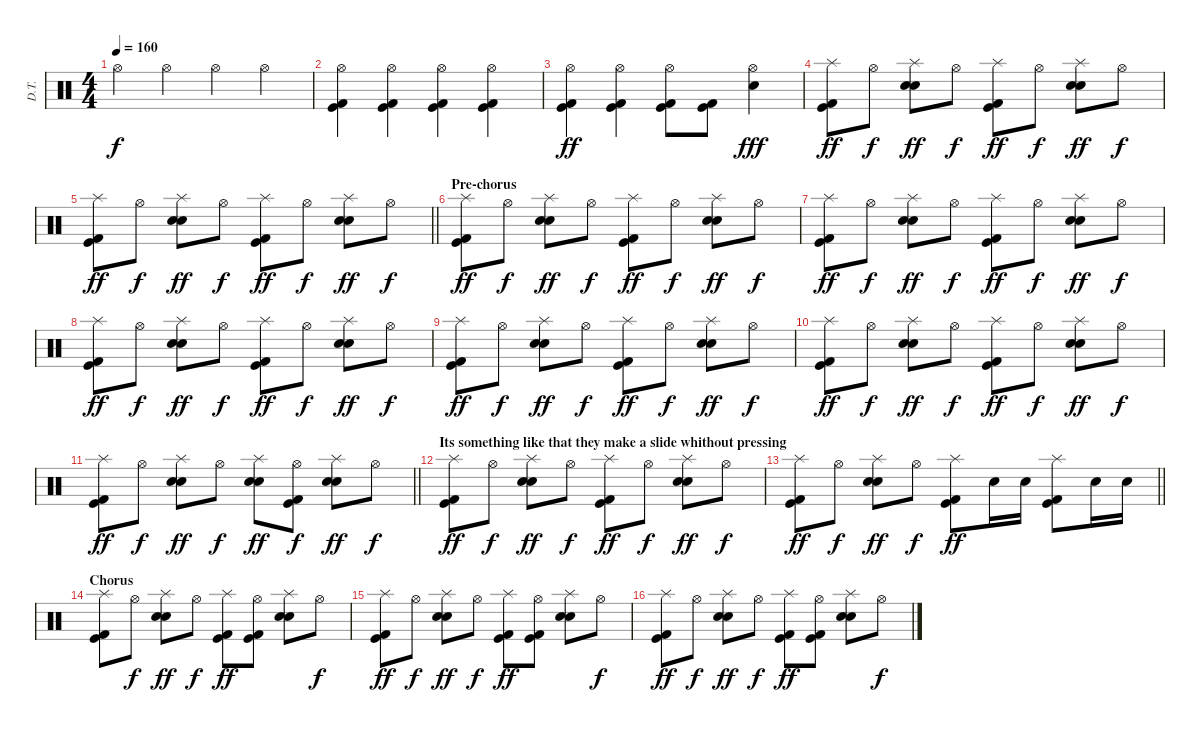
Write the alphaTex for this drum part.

\track ("D.T." "D.T.") {instrument percussion}
\staff {score}
\articulation defaults
\ts (4 4)
\tempo 160
\clef neutral
\ks c "Hi-Hat (open)".4{dy f} "Hi-Hat (open)".4 "Hi-Hat (open)".4 "Hi-Hat (open)".4
|
("Hi-Hat (open)" "Kick (hit)" "Kick (hit) 2").4 ("Hi-Hat (open)" "Kick (hit)" "Kick (hit) 2").4 ("Hi-Hat (open)" "Kick (hit)" "Kick (hit) 2").4 ("Hi-Hat (open)" "Kick (hit)" "Kick (hit) 2").4 |
("Hi-Hat (open)" "Kick (hit)" "Kick (hit) 2").4{dy ff} ("Hi-Hat (open)" "Kick (hit)" "Kick (hit) 2").4 ("Hi-Hat (open)" "Kick (hit)" "Kick (hit) 2").8 ("Kick (hit)" "Kick (hit) 2").8 ("Hi-Hat (open)" "Electric Snare (hit)").4{dy fff} |
("Splash (hit)" "Kick (hit)" "Kick (hit) 2").8{dy ff} "Hi-Hat (open)".8{dy f} ("Splash (hit)" "Snare (hit) 2" "Electric Snare (hit)").8{dy ff} "Hi-Hat (open)".8{dy f} ("Splash (hit)" "Kick (hit)" "Kick (hit) 2").8{dy ff} "Hi-Hat (open)".8{dy f} ("Splash (hit)" "Snare (hit) 2" "Electric Snare (hit)").8{dy ff} "Hi-Hat (open)".8{dy f} |
\barLineRight lightlight
("Splash (hit)" "Kick (hit)" "Kick (hit) 2").8{dy ff} "Hi-Hat (open)".8{dy f} ("Splash (hit)" "Snare (hit) 2" "Electric Snare (hit)").8{dy ff} "Hi-Hat (open)".8{dy f} ("Splash (hit)" "Kick (hit)" "Kick (hit) 2").8{dy ff} "Hi-Hat (open)".8{dy f} ("Splash (hit)" "Snare (hit) 2" "Electric Snare (hit)").8{dy ff} "Hi-Hat (open)".8{dy f} |
\section ("" "Pre-chorus")
("Splash (hit)" "Kick (hit)" "Kick (hit) 2").8{dy ff} "Hi-Hat (open)".8{dy f} ("Splash (hit)" "Snare (hit) 2" "Electric Snare (hit)").8{dy ff} "Hi-Hat (open)".8{dy f} ("Splash (hit)" "Kick (hit)" "Kick (hit) 2").8{dy ff} "Hi-Hat (open)".8{dy f} ("Splash (hit)" "Snare (hit) 2" "Electric Snare (hit)").8{dy ff} "Hi-Hat (open)".8{dy f} |
("Splash (hit)" "Kick (hit)" "Kick (hit) 2").8{dy ff} "Hi-Hat (open)".8{dy f} ("Splash (hit)" "Snare (hit) 2" "Electric Snare (hit)").8{dy ff} "Hi-Hat (open)".8{dy f} ("Splash (hit)" "Kick (hit)" "Kick (hit) 2").8{dy ff} "Hi-Hat (open)".8{dy f} ("Splash (hit)" "Snare (hit) 2" "Electric Snare (hit)").8{dy ff} "Hi-Hat (open)".8{dy f} |
("Splash (hit)" "Kick (hit)" "Kick (hit) 2").8{dy ff} "Hi-Hat (open)".8{dy f} ("Splash (hit)" "Snare (hit) 2" "Electric Snare (hit)").8{dy ff} "Hi-Hat (open)".8{dy f} ("Splash (hit)" "Kick (hit)" "Kick (hit) 2").8{dy ff} "Hi-Hat (open)".8{dy f} ("Splash (hit)" "Snare (hit) 2" "Electric Snare (hit)").8{dy ff} "Hi-Hat (open)".8{dy f} |
("Splash (hit)" "Kick (hit)" "Kick (hit) 2").8{dy ff} "Hi-Hat (open)".8{dy f} ("Splash (hit)" "Snare (hit) 2" "Electric Snare (hit)").8{dy ff} "Hi-Hat (open)".8{dy f} ("Splash (hit)" "Kick (hit)" "Kick (hit) 2").8{dy ff} "Hi-Hat (open)".8{dy f} ("Splash (hit)" "Snare (hit) 2" "Electric Snare (hit)").8{dy ff} "Hi-Hat (open)".8{dy f} |
("Splash (hit)" "Kick (hit)" "Kick (hit) 2").8{dy ff} "Hi-Hat (open)".8{dy f} ("Splash (hit)" "Snare (hit) 2" "Electric Snare (hit)").8{dy ff} "Hi-Hat (open)".8{dy f} ("Splash (hit)" "Kick (hit)" "Kick (hit) 2").8{dy ff} "Hi-Hat (open)".8{dy f} ("Splash (hit)" "Snare (hit) 2" "Electric Snare (hit)").8{dy ff} "Hi-Hat (open)".8{dy f} |
\barLineRight lightlight
("Splash (hit)" "Kick (hit)" "Kick (hit) 2").8{dy ff} "Hi-Hat (open)".8{dy f} ("Splash (hit)" "Snare (hit) 2" "Electric Snare (hit)").8{dy ff} "Hi-Hat (open)".8{dy f} ("Splash (hit)" "Snare (hit) 2" "Electric Snare (hit)").8{dy ff} ("Hi-Hat (open)" "Kick (hit)" "Kick (hit) 2").8{dy f} ("Splash (hit)" "Snare (hit) 2" "Electric Snare (hit)").8{dy ff} "Hi-Hat (open)".8{dy f} |
\section ("" "Its something like that they make a slide whithout pressing ")
("Splash (hit)" "Kick (hit)" "Kick (hit) 2").8{dy ff} "Hi-Hat (open)".8{dy f} ("Splash (hit)" "Snare (hit) 2" "Electric Snare (hit)").8{dy ff} "Hi-Hat (open)".8{dy f} ("Splash (hit)" "Kick (hit)" "Kick (hit) 2").8{dy ff} "Hi-Hat (open)".8{dy f} ("Splash (hit)" "Snare (hit) 2" "Electric Snare (hit)").8{dy ff} "Hi-Hat (open)".8{dy f} |
\barLineRight lightlight
("Splash (hit)" "Kick (hit)" "Kick (hit) 2").8{dy ff} "Hi-Hat (open)".8{dy f} ("Splash (hit)" "Snare (hit) 2" "Electric Snare (hit)").8{dy ff} "Hi-Hat (open)".8{dy f} ("Splash (hit)" "Kick (hit)" "Kick (hit) 2").8{dy ff} "Electric Snare (hit)".16 "Electric Snare (hit)".16 ("Splash (hit)" "Kick (hit)" "Kick (hit) 2").8 "Electric Snare (hit)".16 "Electric Snare (hit)".16 |
\section ("" "Chorus")
("Splash (hit)" "Kick (hit)" "Kick (hit) 2").8 "Hi-Hat (open)".8{dy f} ("Splash (hit)" "Snare (hit) 2" "Electric Snare (hit)").8{dy ff} "Hi-Hat (open)".8{dy f} ("Splash (hit)" "Kick (hit)" "Kick (hit) 2").8{dy ff} ("Hi-Hat (open)" "Kick (hit)" "Kick (hit) 2").8 ("Splash (hit)" "Snare (hit) 2" "Electric Snare (hit)").8 "Hi-Hat (open)".8{dy f} |
("Splash (hit)" "Kick (hit)" "Kick (hit) 2").8{dy ff} "Hi-Hat (open)".8{dy f} ("Splash (hit)" "Snare (hit) 2" "Electric Snare (hit)").8{dy ff} "Hi-Hat (open)".8{dy f} ("Splash (hit)" "Kick (hit)" "Kick (hit) 2").8{dy ff} ("Hi-Hat (open)" "Kick (hit)" "Kick (hit) 2").8 ("Splash (hit)" "Snare (hit) 2" "Electric Snare (hit)").8 "Hi-Hat (open)".8{dy f} |
("Splash (hit)" "Kick (hit)" "Kick (hit) 2").8{dy ff} "Hi-Hat (open)".8{dy f} ("Splash (hit)" "Snare (hit) 2" "Electric Snare (hit)").8{dy ff} "Hi-Hat (open)".8{dy f} ("Splash (hit)" "Kick (hit)" "Kick (hit) 2").8{dy ff} ("Hi-Hat (open)" "Kick (hit)" "Kick (hit) 2").8 ("Splash (hit)" "Snare (hit) 2" "Electric Snare (hit)").8 "Hi-Hat (open)".8{dy f}
